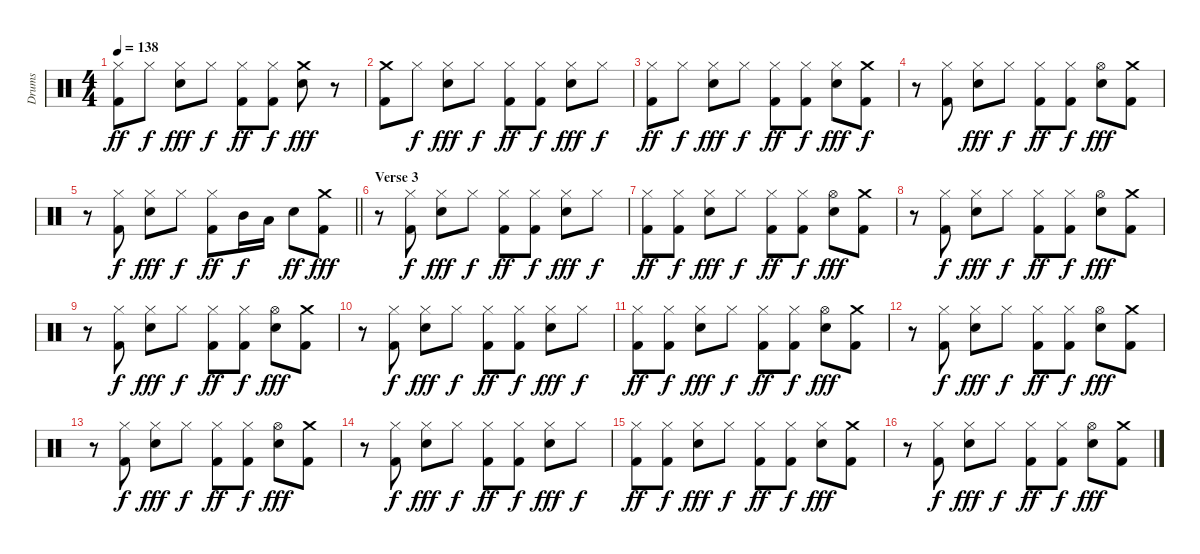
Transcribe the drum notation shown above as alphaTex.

\track ("Drums" "Drums") {instrument percussion}
\staff {score}
\articulation defaults
\ts (4 4)
\tempo 138
\clef neutral
\ks c
("Kick (hit) 2" "Hi-Hat (closed)").8{dy ff} "Hi-Hat (closed)".8{dy f} ("Snare (hit) 2" "Hi-Hat (closed)").8{dy fff} "Hi-Hat (closed)".8{dy f} ("Kick (hit) 2" "Hi-Hat (closed)").8{dy ff} ("Kick (hit) 2" "Hi-Hat (closed)").8{dy f} ("Snare (hit) 2" "Crash medium (hit)").8{dy fff} r.8 |
("Kick (hit) 2" "Crash medium (hit)").8 "Hi-Hat (closed)".8{dy f} ("Snare (hit) 2" "Hi-Hat (closed)").8{dy fff} "Hi-Hat (closed)".8{dy f} ("Kick (hit) 2" "Hi-Hat (closed)").8{dy ff} ("Kick (hit) 2" "Hi-Hat (closed)").8{dy f} ("Snare (hit) 2" "Hi-Hat (closed)").8{dy fff} "Hi-Hat (closed)".8{dy f} |
("Kick (hit) 2" "Hi-Hat (closed)").8{dy ff} "Hi-Hat (closed)".8{dy f} ("Snare (hit) 2" "Hi-Hat (closed)").8{dy fff} "Hi-Hat (closed)".8{dy f} ("Kick (hit) 2" "Hi-Hat (closed)").8{dy ff} ("Kick (hit) 2" "Hi-Hat (closed)").8{dy f} ("Snare (hit) 2" "Hi-Hat (closed)").8{dy fff} ("Crash medium (hit)" "Kick (hit) 2").8{dy f} |
r.8 ("Kick (hit) 2" "Hi-Hat (closed)").8 ("Snare (hit) 2" "Hi-Hat (closed)").8{dy fff} "Hi-Hat (closed)".8{dy f} ("Kick (hit) 2" "Hi-Hat (closed)").8{dy ff} ("Kick (hit) 2" "Hi-Hat (closed)").8{dy f} ("Snare (hit) 2" "Hi-Hat (open)").8{dy fff} ("Kick (hit) 2" "Crash medium (hit)").8 |
\barLineRight lightlight
r.8 ("Kick (hit) 2" "Hi-Hat (closed)").8{dy f} ("Snare (hit) 2" "Hi-Hat (closed)").8{dy fff} "Hi-Hat (closed)".8{dy f} ("Kick (hit) 2" "Hi-Hat (closed)").8{dy ff} "Mid Tom (hit)".16{dy f} "Low Tom (hit)".16 "Snare (hit) 2".8{dy ff} ("Kick (hit) 2" "Crash medium (hit)").8{dy fff} |
\section ("" "Verse 3")
r.8 ("Kick (hit) 2" "Hi-Hat (closed)").8{dy f} ("Snare (hit) 2" "Hi-Hat (closed)").8{dy fff} "Hi-Hat (closed)".8{dy f} ("Kick (hit) 2" "Hi-Hat (closed)").8{dy ff} ("Kick (hit) 2" "Hi-Hat (closed)").8{dy f} ("Snare (hit) 2" "Hi-Hat (closed)").8{dy fff} "Hi-Hat (closed)".8{dy f} |
("Kick (hit) 2" "Hi-Hat (closed)").8{dy ff} ("Kick (hit) 2" "Hi-Hat (closed)").8{dy f} ("Snare (hit) 2" "Hi-Hat (closed)").8{dy fff} "Hi-Hat (closed)".8{dy f} ("Kick (hit) 2" "Hi-Hat (closed)").8{dy ff} ("Hi-Hat (closed)" "Kick (hit) 2").8{dy f} ("Snare (hit) 2" "Hi-Hat (open)").8{dy fff} ("Kick (hit) 2" "Crash medium (hit)").8 |
r.8 ("Kick (hit) 2" "Hi-Hat (closed)").8{dy f} ("Snare (hit) 2" "Hi-Hat (closed)").8{dy fff} "Hi-Hat (closed)".8{dy f} ("Kick (hit) 2" "Hi-Hat (closed)").8{dy ff} ("Kick (hit) 2" "Hi-Hat (closed)").8{dy f} ("Snare (hit) 2" "Hi-Hat (open)").8{dy fff} ("Kick (hit) 2" "Crash medium (hit)").8 |
r.8 ("Kick (hit) 2" "Hi-Hat (closed)").8{dy f} ("Snare (hit) 2" "Hi-Hat (closed)").8{dy fff} "Hi-Hat (closed)".8{dy f} ("Kick (hit) 2" "Hi-Hat (closed)").8{dy ff} ("Kick (hit) 2" "Hi-Hat (closed)").8{dy f} ("Snare (hit) 2" "Hi-Hat (open)").8{dy fff} ("Kick (hit) 2" "Crash medium (hit)").8 |
r.8 ("Kick (hit) 2" "Hi-Hat (closed)").8{dy f} ("Snare (hit) 2" "Hi-Hat (closed)").8{dy fff} "Hi-Hat (closed)".8{dy f} ("Kick (hit) 2" "Hi-Hat (closed)").8{dy ff} ("Kick (hit) 2" "Hi-Hat (closed)").8{dy f} ("Snare (hit) 2" "Hi-Hat (closed)").8{dy fff} "Hi-Hat (closed)".8{dy f} |
("Kick (hit) 2" "Hi-Hat (closed)").8{dy ff} ("Kick (hit) 2" "Hi-Hat (closed)").8{dy f} ("Snare (hit) 2" "Hi-Hat (closed)").8{dy fff} "Hi-Hat (closed)".8{dy f} ("Kick (hit) 2" "Hi-Hat (closed)").8{dy ff} ("Hi-Hat (closed)" "Kick (hit) 2").8{dy f} ("Snare (hit) 2" "Hi-Hat (open)").8{dy fff} ("Kick (hit) 2" "Crash medium (hit)").8 |
r.8 ("Kick (hit) 2" "Hi-Hat (closed)").8{dy f} ("Snare (hit) 2" "Hi-Hat (closed)").8{dy fff} "Hi-Hat (closed)".8{dy f} ("Kick (hit) 2" "Hi-Hat (closed)").8{dy ff} ("Kick (hit) 2" "Hi-Hat (closed)").8{dy f} ("Snare (hit) 2" "Hi-Hat (open)").8{dy fff} ("Kick (hit) 2" "Crash medium (hit)").8 |
r.8 ("Kick (hit) 2" "Hi-Hat (closed)").8{dy f} ("Snare (hit) 2" "Hi-Hat (closed)").8{dy fff} "Hi-Hat (closed)".8{dy f} ("Kick (hit) 2" "Hi-Hat (closed)").8{dy ff} ("Kick (hit) 2" "Hi-Hat (closed)").8{dy f} ("Snare (hit) 2" "Hi-Hat (open)").8{dy fff} ("Kick (hit) 2" "Crash medium (hit)").8 |
r.8 ("Kick (hit) 2" "Hi-Hat (closed)").8{dy f} ("Snare (hit) 2" "Hi-Hat (closed)").8{dy fff} "Hi-Hat (closed)".8{dy f} ("Kick (hit) 2" "Hi-Hat (closed)").8{dy ff} ("Kick (hit) 2" "Hi-Hat (closed)").8{dy f} ("Snare (hit) 2" "Hi-Hat (closed)").8{dy fff} "Hi-Hat (closed)".8{dy f} |
("Kick (hit) 2" "Hi-Hat (closed)").8{dy ff} ("Kick (hit) 2" "Hi-Hat (closed)").8{dy f} ("Snare (hit) 2" "Hi-Hat (closed)").8{dy fff} "Hi-Hat (closed)".8{dy f} ("Kick (hit) 2" "Hi-Hat (closed)").8{dy ff} ("Kick (hit) 2" "Hi-Hat (closed)").8{dy f} ("Snare (hit) 2" "Hi-Hat (closed)").8{dy fff} ("Kick (hit) 2" "Crash medium (hit)").8 |
r.8 ("Kick (hit) 2" "Hi-Hat (closed)").8{dy f} ("Snare (hit) 2" "Hi-Hat (closed)").8{dy fff} "Hi-Hat (closed)".8{dy f} ("Kick (hit) 2" "Hi-Hat (closed)").8{dy ff} ("Kick (hit) 2" "Hi-Hat (closed)").8{dy f} ("Snare (hit) 2" "Hi-Hat (open)").8{dy fff} ("Kick (hit) 2" "Crash medium (hit)").8
